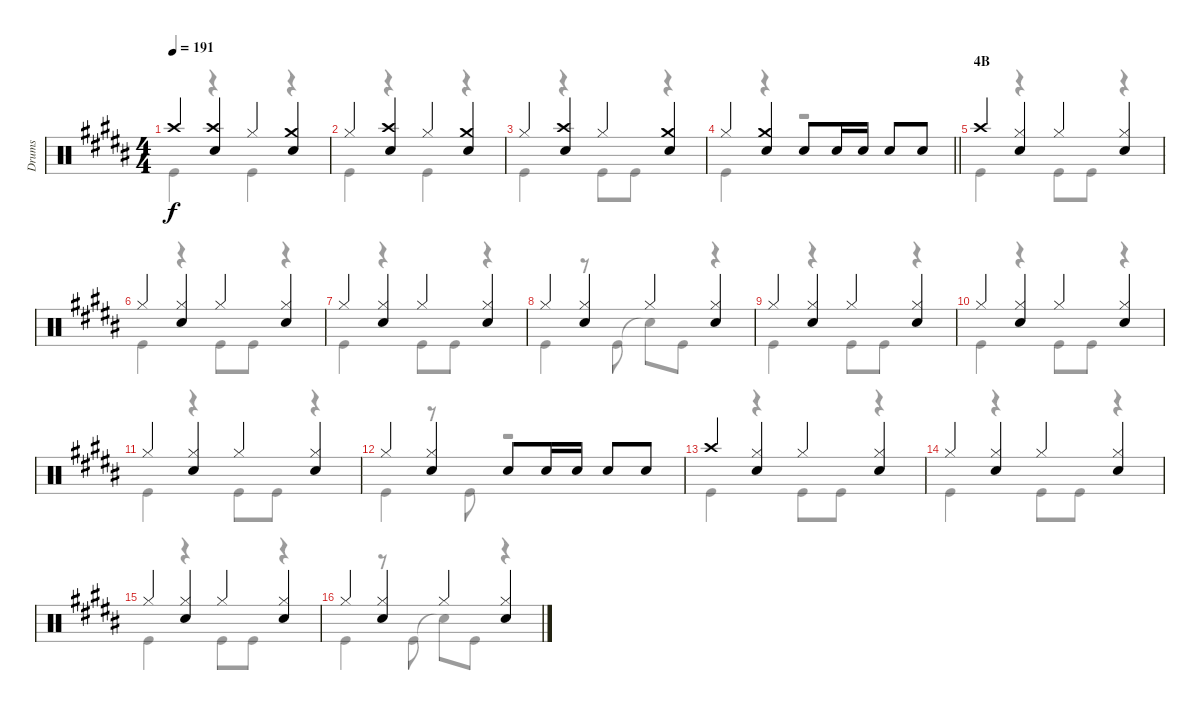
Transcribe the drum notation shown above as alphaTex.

\track ("Drums" "Drums") {instrument percussion}
\staff {score}
\articulation defaults
\voice
\ts (4 4)
\tempo 191
\clef neutral
\ks b "Crash high (hit)".4{dy f}
("Crash high (hit)" "Snare (hit) 2").4 "Hi-Hat (closed)".4 ("Crash medium (hit)" "Snare (hit) 2").4 |
"Hi-Hat (closed)".4 ("Crash high (hit)" "Snare (hit) 2").4 "Hi-Hat (closed)".4 ("Crash medium (hit)" "Snare (hit) 2").4 |
"Hi-Hat (closed)".4 ("Crash high (hit)" "Snare (hit) 2").4 "Hi-Hat (closed)".4 ("Crash medium (hit)" "Snare (hit) 2").4 |
\barLineRight lightlight "Hi-Hat (closed)".4
("Crash medium (hit)" "Snare (hit) 2").4 "Snare (hit) 2".8 "Snare (hit) 2".16 "Snare (hit) 2".16 "Snare (hit) 2".8 "Snare (hit) 2".8 |
\section ("" "4B")
"Crash high (hit)".4 ("Hi-Hat (closed)" "Snare (hit) 2").4 "Hi-Hat (closed)".4 ("Hi-Hat (closed)" "Snare (hit) 2").4 |
"Hi-Hat (closed)".4 ("Hi-Hat (closed)" "Snare (hit) 2").4 "Hi-Hat (closed)".4 ("Hi-Hat (closed)" "Snare (hit) 2").4 |
"Hi-Hat (closed)".4 ("Hi-Hat (closed)" "Snare (hit) 2").4 "Hi-Hat (closed)".4 ("Hi-Hat (closed)" "Snare (hit) 2").4 |
"Hi-Hat (closed)".4 ("Hi-Hat (closed)" "Snare (hit) 2").4 "Hi-Hat (closed)".4 ("Hi-Hat (closed)" "Snare (hit) 2").4 |
"Hi-Hat (closed)".4 ("Hi-Hat (closed)" "Snare (hit) 2").4 "Hi-Hat (closed)".4 ("Hi-Hat (closed)" "Snare (hit) 2").4 |
"Hi-Hat (closed)".4 ("Hi-Hat (closed)" "Snare (hit) 2").4 "Hi-Hat (closed)".4 ("Hi-Hat (closed)" "Snare (hit) 2").4 |
"Hi-Hat (closed)".4 ("Hi-Hat (closed)" "Snare (hit) 2").4 "Hi-Hat (closed)".4 ("Hi-Hat (closed)" "Snare (hit) 2").4 |
"Hi-Hat (closed)".4 ("Hi-Hat (closed)" "Snare (hit) 2").4 "Snare (hit) 2".8 "Snare (hit) 2".16 "Snare (hit) 2".16 "Snare (hit) 2".8 "Snare (hit) 2".8 |
"Crash high (hit)".4 ("Hi-Hat (closed)" "Snare (hit) 2").4 "Hi-Hat (closed)".4 ("Hi-Hat (closed)" "Snare (hit) 2").4 |
"Hi-Hat (closed)".4 ("Hi-Hat (closed)" "Snare (hit) 2").4 "Hi-Hat (closed)".4 ("Hi-Hat (closed)" "Snare (hit) 2").4 |
"Hi-Hat (closed)".4 ("Hi-Hat (closed)" "Snare (hit) 2").4 "Hi-Hat (closed)".4 ("Hi-Hat (closed)" "Snare (hit) 2").4 |
"Hi-Hat (closed)".4 ("Hi-Hat (closed)" "Snare (hit) 2").4 "Hi-Hat (closed)".4 ("Hi-Hat (closed)" "Snare (hit) 2").4
\voice
\clef neutral
\ottava regular
\simile none
\ks b "Kick (hit)".4{dy f}
r.4 "Kick (hit)".4 r.4 |
"Kick (hit)".4 r.4 "Kick (hit)".4 r.4 |
"Kick (hit)".4 r.4 "Kick (hit)".8 "Kick (hit)".8 r.4 |
\barLineRight lightlight "Kick (hit)".4
r.4 r.2 |
"Kick (hit)".4 r.4 "Kick (hit)".8 "Kick (hit)".8 r.4 |
"Kick (hit)".4 r.4 "Kick (hit)".8 "Kick (hit)".8 r.4 |
"Kick (hit)".4 r.4 "Kick (hit)".8 "Kick (hit)".8 r.4 |
"Kick (hit)".4 r.8 "Kick (hit)".8 "Snare (hit)"{t}.8 "Kick (hit)".8 r.4 |
"Kick (hit)".4 r.4 "Kick (hit)".8 "Kick (hit)".8 r.4 |
"Kick (hit)".4 r.4 "Kick (hit)".8 "Kick (hit)".8 r.4 |
"Kick (hit)".4 r.4 "Kick (hit)".8 "Kick (hit)".8 r.4 |
"Kick (hit)".4 r.8 "Kick (hit)".8 r.2 |
"Kick (hit)".4 r.4 "Kick (hit)".8 "Kick (hit)".8 r.4 |
"Kick (hit)".4 r.4 "Kick (hit)".8 "Kick (hit)".8 r.4 |
"Kick (hit)".4 r.4 "Kick (hit)".8 "Kick (hit)".8 r.4 |
"Kick (hit)".4 r.8 "Kick (hit)".8 "Snare (hit)"{t}.8 "Kick (hit)".8 r.4
